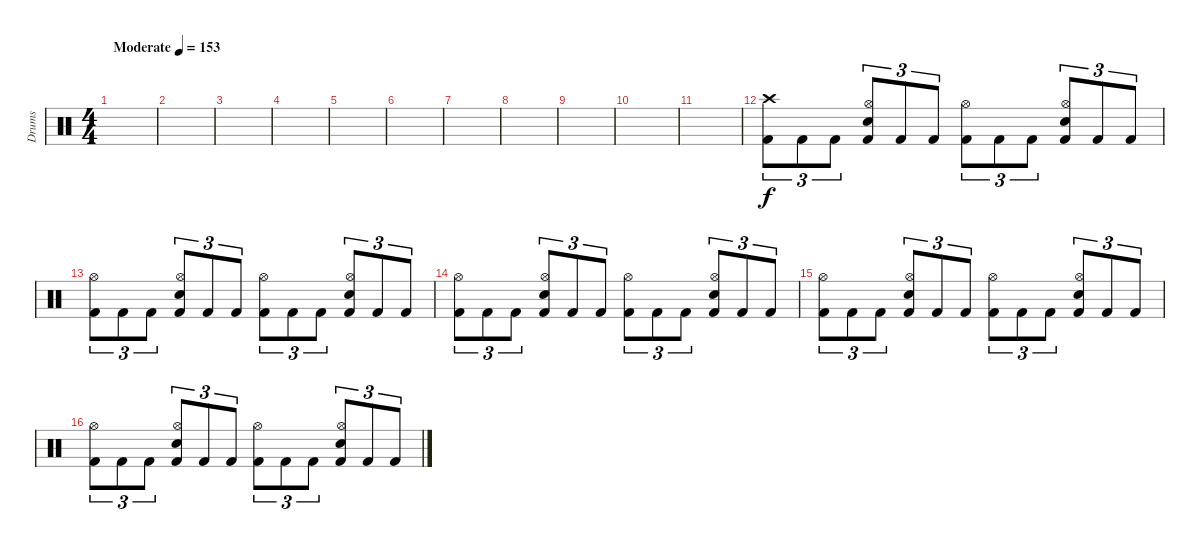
\track ("Drums" "Drums") {instrument percussion}
\staff {score}
\articulation defaults
\ts (4 4)
\tempo (153 "Moderate")
\clef neutral
\ks c
|
|
|
|
|
|
|
|
|
|
|
("Crash high (hit)" "Kick (hit) 2").8{tu (3 2)} "Kick (hit) 2".8{tu (3 2)} "Kick (hit) 2".8{tu (3 2)} ("Hi-Hat (open)" "Snare (hit) 2" "Kick (hit) 2").8{tu (3 2)} "Kick (hit) 2".8{tu (3 2)} "Kick (hit) 2".8{tu (3 2)} ("Hi-Hat (open)" "Kick (hit) 2").8{tu (3 2)} "Kick (hit) 2".8{tu (3 2)} "Kick (hit) 2".8{tu (3 2)} ("Hi-Hat (open)" "Snare (hit) 2" "Kick (hit) 2").8{tu (3 2)} "Kick (hit) 2".8{tu (3 2)} "Kick (hit) 2".8{tu (3 2)} |
("Hi-Hat (open)" "Kick (hit) 2").8{tu (3 2)} "Kick (hit) 2".8{tu (3 2)} "Kick (hit) 2".8{tu (3 2)} ("Hi-Hat (open)" "Snare (hit) 2" "Kick (hit) 2").8{tu (3 2)} "Kick (hit) 2".8{tu (3 2)} "Kick (hit) 2".8{tu (3 2)} ("Hi-Hat (open)" "Kick (hit) 2").8{tu (3 2)} "Kick (hit) 2".8{tu (3 2)} "Kick (hit) 2".8{tu (3 2)} ("Hi-Hat (open)" "Snare (hit) 2" "Kick (hit) 2").8{tu (3 2)} "Kick (hit) 2".8{tu (3 2)} "Kick (hit) 2".8{tu (3 2)} |
("Hi-Hat (open)" "Kick (hit) 2").8{tu (3 2)} "Kick (hit) 2".8{tu (3 2)} "Kick (hit) 2".8{tu (3 2)} ("Hi-Hat (open)" "Snare (hit) 2" "Kick (hit) 2").8{tu (3 2)} "Kick (hit) 2".8{tu (3 2)} "Kick (hit) 2".8{tu (3 2)} ("Hi-Hat (open)" "Kick (hit) 2").8{tu (3 2)} "Kick (hit) 2".8{tu (3 2)} "Kick (hit) 2".8{tu (3 2)} ("Hi-Hat (open)" "Snare (hit) 2" "Kick (hit) 2").8{tu (3 2)} "Kick (hit) 2".8{tu (3 2)} "Kick (hit) 2".8{tu (3 2)} |
("Hi-Hat (open)" "Kick (hit) 2").8{tu (3 2)} "Kick (hit) 2".8{tu (3 2)} "Kick (hit) 2".8{tu (3 2)} ("Hi-Hat (open)" "Snare (hit) 2" "Kick (hit) 2").8{tu (3 2)} "Kick (hit) 2".8{tu (3 2)} "Kick (hit) 2".8{tu (3 2)} ("Hi-Hat (open)" "Kick (hit) 2").8{tu (3 2)} "Kick (hit) 2".8{tu (3 2)} "Kick (hit) 2".8{tu (3 2)} ("Hi-Hat (open)" "Snare (hit) 2" "Kick (hit) 2").8{tu (3 2)} "Kick (hit) 2".8{tu (3 2)} "Kick (hit) 2".8{tu (3 2)} |
("Hi-Hat (open)" "Kick (hit) 2").8{tu (3 2)} "Kick (hit) 2".8{tu (3 2)} "Kick (hit) 2".8{tu (3 2)} ("Hi-Hat (open)" "Snare (hit) 2" "Kick (hit) 2").8{tu (3 2)} "Kick (hit) 2".8{tu (3 2)} "Kick (hit) 2".8{tu (3 2)} ("Hi-Hat (open)" "Kick (hit) 2").8{tu (3 2)} "Kick (hit) 2".8{tu (3 2)} "Kick (hit) 2".8{tu (3 2)} ("Hi-Hat (open)" "Snare (hit) 2" "Kick (hit) 2").8{tu (3 2)} "Kick (hit) 2".8{tu (3 2)} "Kick (hit) 2".8{tu (3 2)}
